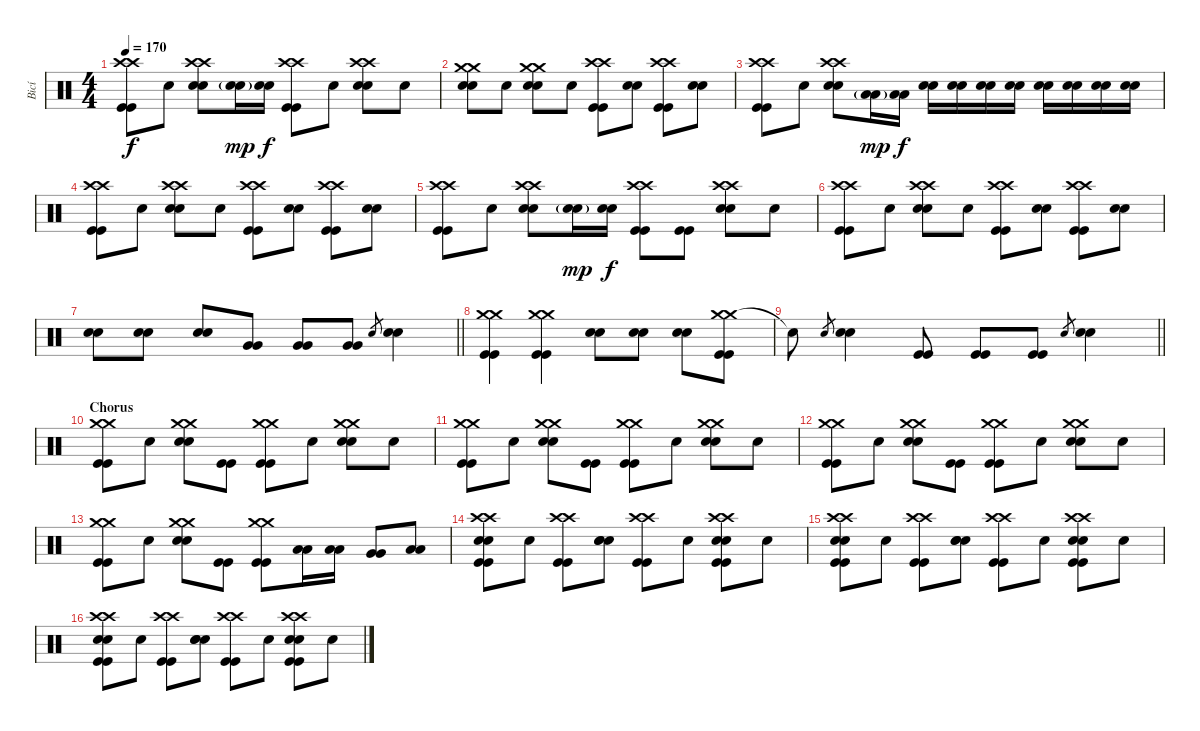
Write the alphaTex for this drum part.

\track ("Bicí" "Bicí") {instrument percussion}
\staff {score}
\articulation defaults
\ts (4 4)
\tempo 170
\clef neutral
\ks c
("Crash high (hit)" "Crash high (hit)" "Kick (hit)" "Kick (hit)").8{dy f} "Snare (hit)".8 ("Crash high (hit)" "Crash high (hit)" "Electric Snare (hit)" "Electric Snare (hit)").8 ("Electric Snare (hit)"{g} "Electric Snare (hit)"{g}).16{dy mp} ("Electric Snare (hit)" "Electric Snare (hit)").16{dy f} ("Crash high (hit)" "Crash high (hit)" "Kick (hit)" "Kick (hit)").8 "Snare (hit)".8 ("Crash high (hit)" "Crash high (hit)" "Electric Snare (hit)" "Electric Snare (hit)").8 "Snare (hit)".8 |
("Crash medium (hit)" "Crash medium (hit)" "Electric Snare (hit)" "Electric Snare (hit)").8 "Snare (hit)".8 ("Crash medium (hit)" "Crash medium (hit)" "Electric Snare (hit)" "Electric Snare (hit)").8 "Snare (hit)".8 ("Crash high (hit)" "Crash high (hit)" "Kick (hit)" "Kick (hit)").8 ("Electric Snare (hit)" "Electric Snare (hit)").8 ("Crash high (hit)" "Crash high (hit)" "Kick (hit)" "Kick (hit)").8 ("Electric Snare (hit)" "Electric Snare (hit)").8 |
("Crash high (hit)" "Crash high (hit)" "Kick (hit)" "Kick (hit)").8 "Snare (hit)".8 ("Crash high (hit)" "Crash high (hit)" "Electric Snare (hit)" "Electric Snare (hit)").8 ("Low Tom (hit)"{g} "Low Tom (hit)"{g}).16{dy mp} ("Low Tom (hit)" "Low Tom (hit)").16{dy f} ("Electric Snare (hit)" "Electric Snare (hit)").16 ("Electric Snare (hit)" "Electric Snare (hit)").16 ("Electric Snare (hit)" "Electric Snare (hit)").16 ("Electric Snare (hit)" "Electric Snare (hit)").16 ("Electric Snare (hit)" "Electric Snare (hit)").16 ("Electric Snare (hit)" "Electric Snare (hit)").16 ("Electric Snare (hit)" "Electric Snare (hit)").16 ("Electric Snare (hit)" "Electric Snare (hit)").16 |
("Crash high (hit)" "Crash high (hit)" "Kick (hit)" "Kick (hit)").8 "Snare (hit)".8 ("Crash high (hit)" "Crash high (hit)" "Electric Snare (hit)" "Electric Snare (hit)").8 "Snare (hit)".8 ("Crash high (hit)" "Crash high (hit)" "Kick (hit)" "Kick (hit)").8 ("Electric Snare (hit)" "Electric Snare (hit)").8 ("Crash high (hit)" "Crash high (hit)" "Kick (hit)" "Kick (hit)").8 ("Electric Snare (hit)" "Electric Snare (hit)").8 |
("Crash high (hit)" "Crash high (hit)" "Kick (hit)" "Kick (hit)").8 "Snare (hit)".8 ("Crash high (hit)" "Crash high (hit)" "Electric Snare (hit)" "Electric Snare (hit)").8 ("Electric Snare (hit)"{g} "Electric Snare (hit)"{g}).16{dy mp} ("Electric Snare (hit)" "Electric Snare (hit)").16{dy f} ("Crash high (hit)" "Crash high (hit)" "Kick (hit)" "Kick (hit)").8 ("Kick (hit)" "Kick (hit)").8 ("Crash high (hit)" "Crash high (hit)" "Electric Snare (hit)" "Electric Snare (hit)").8 "Snare (hit)".8 |
("Crash high (hit)" "Crash high (hit)" "Kick (hit)" "Kick (hit)").8 "Snare (hit)".8 ("Crash high (hit)" "Crash high (hit)" "Electric Snare (hit)" "Electric Snare (hit)").8 "Snare (hit)".8 ("Crash high (hit)" "Crash high (hit)" "Kick (hit)" "Kick (hit)").8 ("Electric Snare (hit)" "Electric Snare (hit)").8 ("Crash high (hit)" "Crash high (hit)" "Kick (hit)" "Kick (hit)").8 ("Electric Snare (hit)" "Electric Snare (hit)").8 |
\barLineRight lightlight
("Electric Snare (hit)" "Electric Snare (hit)").8 ("Electric Snare (hit)" "Electric Snare (hit)").8 ("Electric Snare (hit)" "Electric Snare (hit)").8 ("Very Low Tom (hit)" "Very Low Tom (hit)").8 ("Very Low Tom (hit)" "Very Low Tom (hit)").8 ("Very Low Tom (hit)" "Very Low Tom (hit)").8 "Electric Snare (hit)".8{gr} ("Electric Snare (hit)" "Electric Snare (hit)").4 |
("Crash medium (hit)" "Crash medium (hit)" "Kick (hit)" "Kick (hit)").4 ("Crash medium (hit)" "Crash medium (hit)" "Kick (hit)" "Kick (hit)").4 ("Electric Snare (hit)" "Electric Snare (hit)").8 ("Electric Snare (hit)" "Electric Snare (hit)").8 ("Electric Snare (hit)" "Electric Snare (hit)").8 ("Crash medium (hit)" "Crash medium (hit)" "Kick (hit)" "Kick (hit)").8 |
\barLineRight lightlight "Snare (hit)"{t}.8 "Electric Snare (hit)".8{gr}
("Electric Snare (hit)" "Electric Snare (hit)").4 ("Kick (hit)" "Kick (hit)").8 ("Kick (hit)" "Kick (hit)").8 ("Kick (hit)" "Kick (hit)").8 "Electric Snare (hit)".8{gr} ("Electric Snare (hit)" "Electric Snare (hit)").4 |
\section ("" "Chorus")
("Crash medium (hit)" "Crash medium (hit)" "Kick (hit)" "Kick (hit)").8 "Snare (hit)".8 ("Crash medium (hit)" "Crash medium (hit)" "Electric Snare (hit)" "Electric Snare (hit)").8 ("Kick (hit)" "Kick (hit)").8 ("Crash medium (hit)" "Crash medium (hit)" "Kick (hit)" "Kick (hit)").8 "Snare (hit)".8 ("Crash medium (hit)" "Crash medium (hit)" "Electric Snare (hit)" "Electric Snare (hit)").8 "Snare (hit)".8 |
("Crash medium (hit)" "Crash medium (hit)" "Kick (hit)" "Kick (hit)").8 "Snare (hit)".8 ("Crash medium (hit)" "Crash medium (hit)" "Electric Snare (hit)" "Electric Snare (hit)").8 ("Kick (hit)" "Kick (hit)").8 ("Crash medium (hit)" "Crash medium (hit)" "Kick (hit)" "Kick (hit)").8 "Snare (hit)".8 ("Crash medium (hit)" "Crash medium (hit)" "Electric Snare (hit)" "Electric Snare (hit)").8 "Snare (hit)".8 |
("Crash medium (hit)" "Crash medium (hit)" "Kick (hit)" "Kick (hit)").8 "Snare (hit)".8 ("Crash medium (hit)" "Crash medium (hit)" "Electric Snare (hit)" "Electric Snare (hit)").8 ("Kick (hit)" "Kick (hit)").8 ("Crash medium (hit)" "Crash medium (hit)" "Kick (hit)" "Kick (hit)").8 "Snare (hit)".8 ("Crash medium (hit)" "Crash medium (hit)" "Electric Snare (hit)" "Electric Snare (hit)").8 "Snare (hit)".8 |
("Crash medium (hit)" "Crash medium (hit)" "Kick (hit)" "Kick (hit)").8 "Snare (hit)".8 ("Crash medium (hit)" "Crash medium (hit)" "Electric Snare (hit)" "Electric Snare (hit)").8 ("Kick (hit)" "Kick (hit)").8 ("Crash medium (hit)" "Crash medium (hit)" "Kick (hit)" "Kick (hit)").8 ("Low Tom (hit)" "Low Tom (hit)").16 ("Low Tom (hit)" "Low Tom (hit)").16 ("Very Low Tom (hit)" "Very Low Tom (hit)").8 ("Low Floor Tom (hit)" "Low Floor Tom (hit)").8 |
("Crash high (hit)" "Crash high (hit)" "Electric Snare (hit)" "Electric Snare (hit)" "Kick (hit)" "Kick (hit)").8 "Snare (hit)".8 ("Crash high (hit)" "Crash high (hit)" "Kick (hit)" "Kick (hit)").8 ("Electric Snare (hit)" "Electric Snare (hit)" "Snare (hit)").8 ("Crash high (hit)" "Crash high (hit)" "Kick (hit)" "Kick (hit)").8 "Snare (hit)".8 ("Crash high (hit)" "Crash high (hit)" "Electric Snare (hit)" "Electric Snare (hit)" "Kick (hit)" "Kick (hit)").8 "Snare (hit)".8 |
("Crash high (hit)" "Crash high (hit)" "Electric Snare (hit)" "Electric Snare (hit)" "Kick (hit)" "Kick (hit)").8 "Snare (hit)".8 ("Crash high (hit)" "Crash high (hit)" "Kick (hit)" "Kick (hit)").8 ("Electric Snare (hit)" "Electric Snare (hit)" "Snare (hit)").8 ("Crash high (hit)" "Crash high (hit)" "Kick (hit)" "Kick (hit)").8 "Snare (hit)".8 ("Crash high (hit)" "Crash high (hit)" "Electric Snare (hit)" "Electric Snare (hit)" "Kick (hit)" "Kick (hit)").8 "Snare (hit)".8 |
("Crash high (hit)" "Crash high (hit)" "Electric Snare (hit)" "Electric Snare (hit)" "Kick (hit)" "Kick (hit)").8 "Snare (hit)".8 ("Crash high (hit)" "Crash high (hit)" "Kick (hit)" "Kick (hit)").8 ("Electric Snare (hit)" "Electric Snare (hit)" "Snare (hit)").8 ("Crash high (hit)" "Crash high (hit)" "Kick (hit)" "Kick (hit)").8 "Snare (hit)".8 ("Crash high (hit)" "Crash high (hit)" "Electric Snare (hit)" "Electric Snare (hit)" "Kick (hit)" "Kick (hit)").8 "Snare (hit)".8
